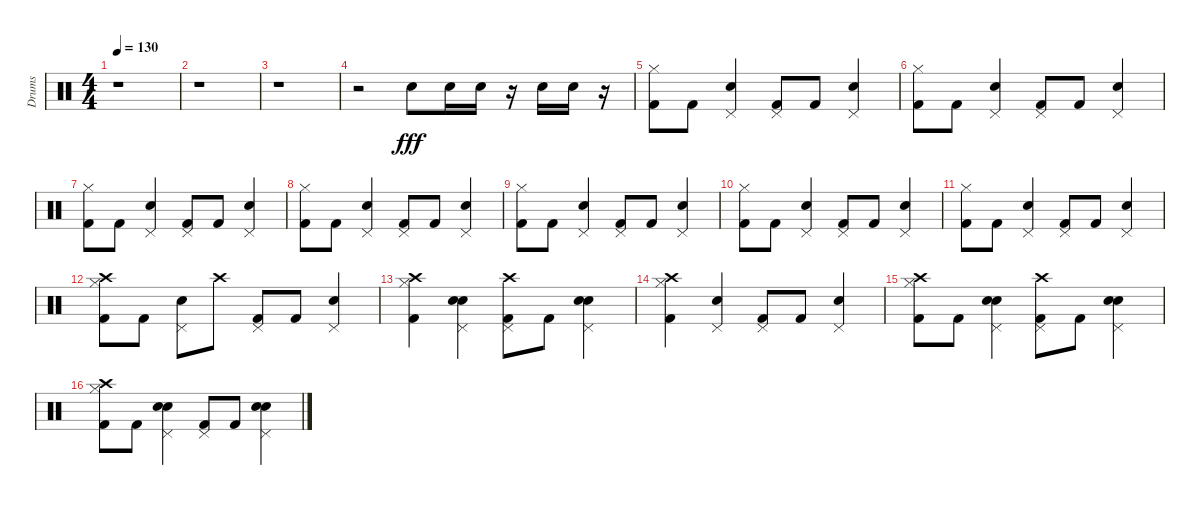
\track ("Drums" "Drums") {instrument percussion}
\staff {score}
\articulation defaults
\ts (4 4)
\tempo 130
\clef neutral
\ks c
r.1{dy fff} |
r.1 |
r.1 |
r.2 "Electric Snare (hit)".8 "Electric Snare (hit)".16 "Electric Snare (hit)".16 r.16 "Electric Snare (hit)".16 "Electric Snare (hit)".16 r.16 |
("Hi-Hat (closed)" "Kick (hit) 2").8 "Kick (hit) 2".8 ("Electric Snare (hit)" "Pedal Hi-Hat (hit)").4 ("Pedal Hi-Hat (hit)" "Kick (hit) 2").8 "Kick (hit) 2".8 ("Electric Snare (hit)" "Pedal Hi-Hat (hit)").4 |
("Hi-Hat (closed)" "Kick (hit) 2").8 "Kick (hit) 2".8 ("Electric Snare (hit)" "Pedal Hi-Hat (hit)").4 ("Pedal Hi-Hat (hit)" "Kick (hit) 2").8 "Kick (hit) 2".8 ("Electric Snare (hit)" "Pedal Hi-Hat (hit)").4 |
("Hi-Hat (closed)" "Kick (hit) 2").8 "Kick (hit) 2".8 ("Electric Snare (hit)" "Pedal Hi-Hat (hit)").4 ("Pedal Hi-Hat (hit)" "Kick (hit) 2").8 "Kick (hit) 2".8 ("Electric Snare (hit)" "Pedal Hi-Hat (hit)").4 |
("Hi-Hat (closed)" "Kick (hit) 2").8 "Kick (hit) 2".8 ("Electric Snare (hit)" "Pedal Hi-Hat (hit)").4 ("Pedal Hi-Hat (hit)" "Kick (hit) 2").8 "Kick (hit) 2".8 ("Electric Snare (hit)" "Pedal Hi-Hat (hit)").4 |
("Hi-Hat (closed)" "Kick (hit) 2").8 "Kick (hit) 2".8 ("Electric Snare (hit)" "Pedal Hi-Hat (hit)").4 ("Pedal Hi-Hat (hit)" "Kick (hit) 2").8 "Kick (hit) 2".8 ("Electric Snare (hit)" "Pedal Hi-Hat (hit)").4 |
("Hi-Hat (closed)" "Kick (hit) 2").8 "Kick (hit) 2".8 ("Electric Snare (hit)" "Pedal Hi-Hat (hit)").4 ("Pedal Hi-Hat (hit)" "Kick (hit) 2").8 "Kick (hit) 2".8 ("Electric Snare (hit)" "Pedal Hi-Hat (hit)").4 |
("Hi-Hat (closed)" "Kick (hit) 2").8 "Kick (hit) 2".8 ("Electric Snare (hit)" "Pedal Hi-Hat (hit)").4 ("Pedal Hi-Hat (hit)" "Kick (hit) 2").8 "Kick (hit) 2".8 ("Electric Snare (hit)" "Pedal Hi-Hat (hit)").4 |
("Hi-Hat (closed)" "Kick (hit) 2" "Crash high (hit)").8 "Kick (hit) 2".8 ("Electric Snare (hit)" "Pedal Hi-Hat (hit)").8 "Crash high (hit)".8 ("Pedal Hi-Hat (hit)" "Kick (hit) 2").8 "Kick (hit) 2".8 ("Electric Snare (hit)" "Pedal Hi-Hat (hit)").4 |
("Hi-Hat (closed)" "Kick (hit) 2" "Crash high (hit)").4 ("Electric Snare (hit)" "Pedal Hi-Hat (hit)" "Snare (hit) 2").4 ("Pedal Hi-Hat (hit)" "Kick (hit) 2" "Crash high (hit)").8 "Kick (hit) 2".8 ("Electric Snare (hit)" "Pedal Hi-Hat (hit)" "Snare (hit) 2").4 |
("Hi-Hat (closed)" "Kick (hit) 2" "Crash high (hit)").4 ("Electric Snare (hit)" "Pedal Hi-Hat (hit)").4 ("Pedal Hi-Hat (hit)" "Kick (hit) 2").8 "Kick (hit) 2".8 ("Electric Snare (hit)" "Pedal Hi-Hat (hit)").4 |
("Hi-Hat (closed)" "Kick (hit) 2" "Crash high (hit)").8 "Kick (hit) 2".8 ("Electric Snare (hit)" "Pedal Hi-Hat (hit)" "Snare (hit) 2").4 ("Pedal Hi-Hat (hit)" "Kick (hit) 2" "Crash high (hit)").8 "Kick (hit) 2".8 ("Electric Snare (hit)" "Pedal Hi-Hat (hit)" "Snare (hit) 2").4 |
("Hi-Hat (closed)" "Kick (hit) 2" "Crash high (hit)").8 "Kick (hit) 2".8 ("Electric Snare (hit)" "Pedal Hi-Hat (hit)" "Snare (hit) 2").4 ("Pedal Hi-Hat (hit)" "Kick (hit) 2").8 "Kick (hit) 2".8 ("Electric Snare (hit)" "Pedal Hi-Hat (hit)" "Snare (hit) 2").4
